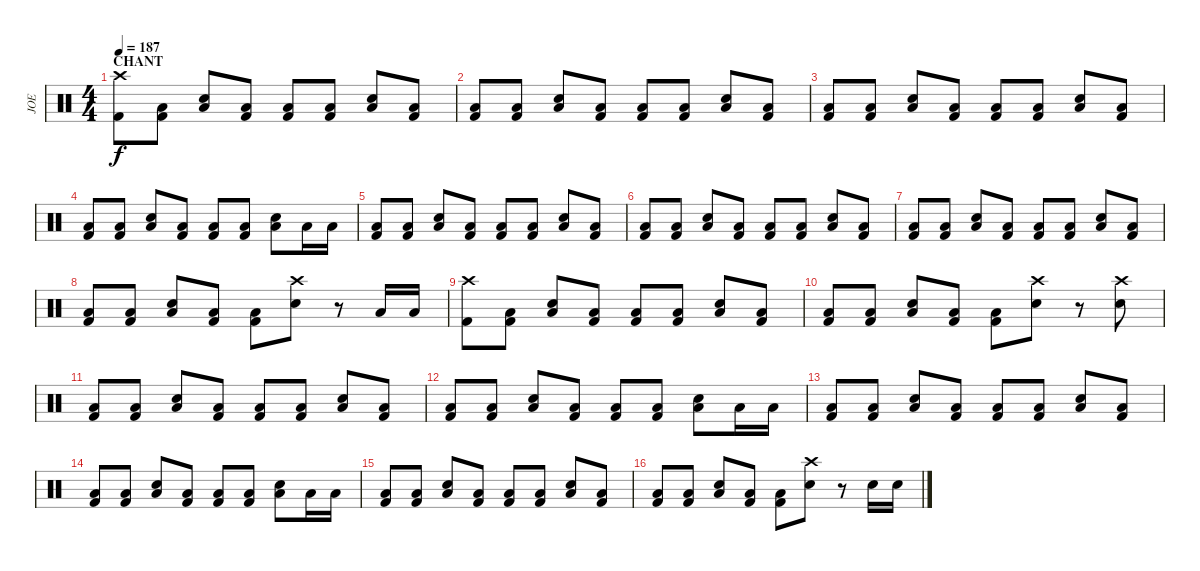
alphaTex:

\track ("JOE" "JOE") {instrument percussion}
\staff {score}
\articulation defaults
\ts (4 4)
\section ("" "CHANT")
\tempo 187
\clef neutral
\ks c
("Crash high (hit)" "Kick (hit) 2").8{dy f} ("Low Floor Tom (hit)" "Kick (hit) 2").8 ("Low Floor Tom (hit)" "Snare (hit) 2").8 ("Low Floor Tom (hit)" "Kick (hit) 2").8 ("Low Floor Tom (hit)" "Kick (hit) 2").8 ("Low Floor Tom (hit)" "Kick (hit) 2").8 ("Low Floor Tom (hit)" "Snare (hit) 2").8 ("Low Floor Tom (hit)" "Kick (hit) 2").8 |
("Low Floor Tom (hit)" "Kick (hit) 2").8 ("Low Floor Tom (hit)" "Kick (hit) 2").8 ("Low Floor Tom (hit)" "Snare (hit) 2").8 ("Low Floor Tom (hit)" "Kick (hit) 2").8 ("Low Floor Tom (hit)" "Kick (hit) 2").8 ("Low Floor Tom (hit)" "Kick (hit) 2").8 ("Low Floor Tom (hit)" "Snare (hit) 2").8 ("Low Floor Tom (hit)" "Kick (hit) 2").8 |
("Low Floor Tom (hit)" "Kick (hit) 2").8 ("Low Floor Tom (hit)" "Kick (hit) 2").8 ("Low Floor Tom (hit)" "Snare (hit) 2").8 ("Low Floor Tom (hit)" "Kick (hit) 2").8 ("Low Floor Tom (hit)" "Kick (hit) 2").8 ("Low Floor Tom (hit)" "Kick (hit) 2").8 ("Low Floor Tom (hit)" "Snare (hit) 2").8 ("Low Floor Tom (hit)" "Kick (hit) 2").8 |
("Low Floor Tom (hit)" "Kick (hit) 2").8 ("Low Floor Tom (hit)" "Kick (hit) 2").8 ("Low Floor Tom (hit)" "Snare (hit) 2").8 ("Low Floor Tom (hit)" "Kick (hit) 2").8 ("Low Floor Tom (hit)" "Kick (hit) 2").8 ("Low Floor Tom (hit)" "Kick (hit) 2").8 ("Low Floor Tom (hit)" "Snare (hit) 2").8 "Low Floor Tom (hit)".16 "Low Floor Tom (hit)".16 |
("Low Floor Tom (hit)" "Kick (hit) 2").8 ("Low Floor Tom (hit)" "Kick (hit) 2").8 ("Low Floor Tom (hit)" "Snare (hit) 2").8 ("Low Floor Tom (hit)" "Kick (hit) 2").8 ("Low Floor Tom (hit)" "Kick (hit) 2").8 ("Low Floor Tom (hit)" "Kick (hit) 2").8 ("Low Floor Tom (hit)" "Snare (hit) 2").8 ("Low Floor Tom (hit)" "Kick (hit) 2").8 |
("Low Floor Tom (hit)" "Kick (hit) 2").8 ("Low Floor Tom (hit)" "Kick (hit) 2").8 ("Low Floor Tom (hit)" "Snare (hit) 2").8 ("Low Floor Tom (hit)" "Kick (hit) 2").8 ("Low Floor Tom (hit)" "Kick (hit) 2").8 ("Low Floor Tom (hit)" "Kick (hit) 2").8 ("Low Floor Tom (hit)" "Snare (hit) 2").8 ("Low Floor Tom (hit)" "Kick (hit) 2").8 |
("Low Floor Tom (hit)" "Kick (hit) 2").8 ("Low Floor Tom (hit)" "Kick (hit) 2").8 ("Low Floor Tom (hit)" "Snare (hit) 2").8 ("Low Floor Tom (hit)" "Kick (hit) 2").8 ("Low Floor Tom (hit)" "Kick (hit) 2").8 ("Low Floor Tom (hit)" "Kick (hit) 2").8 ("Low Floor Tom (hit)" "Snare (hit) 2").8 ("Low Floor Tom (hit)" "Kick (hit) 2").8 |
("Low Floor Tom (hit)" "Kick (hit) 2").8 ("Low Floor Tom (hit)" "Kick (hit) 2").8 ("Low Floor Tom (hit)" "Snare (hit) 2").8 ("Low Floor Tom (hit)" "Kick (hit) 2").8 ("Low Floor Tom (hit)" "Kick (hit) 2").8 ("Crash high (hit)" "Snare (hit) 2").8 r.8 "Low Floor Tom (hit)".16 "Low Floor Tom (hit)".16 |
("Crash high (hit)" "Kick (hit) 2").8 ("Low Floor Tom (hit)" "Kick (hit) 2").8 ("Low Floor Tom (hit)" "Snare (hit) 2").8 ("Low Floor Tom (hit)" "Kick (hit) 2").8 ("Low Floor Tom (hit)" "Kick (hit) 2").8 ("Low Floor Tom (hit)" "Kick (hit) 2").8 ("Low Floor Tom (hit)" "Snare (hit) 2").8 ("Low Floor Tom (hit)" "Kick (hit) 2").8 |
("Low Floor Tom (hit)" "Kick (hit) 2").8 ("Low Floor Tom (hit)" "Kick (hit) 2").8 ("Low Floor Tom (hit)" "Snare (hit) 2").8 ("Low Floor Tom (hit)" "Kick (hit) 2").8 ("Low Floor Tom (hit)" "Kick (hit) 2").8 ("Crash high (hit)" "Snare (hit) 2").8 r.8 ("Crash high (hit)" "Snare (hit) 2").8 |
("Low Floor Tom (hit)" "Kick (hit) 2").8 ("Low Floor Tom (hit)" "Kick (hit) 2").8 ("Low Floor Tom (hit)" "Snare (hit) 2").8 ("Low Floor Tom (hit)" "Kick (hit) 2").8 ("Low Floor Tom (hit)" "Kick (hit) 2").8 ("Low Floor Tom (hit)" "Kick (hit) 2").8 ("Low Floor Tom (hit)" "Snare (hit) 2").8 ("Low Floor Tom (hit)" "Kick (hit) 2").8 |
("Low Floor Tom (hit)" "Kick (hit) 2").8 ("Low Floor Tom (hit)" "Kick (hit) 2").8 ("Low Floor Tom (hit)" "Snare (hit) 2").8 ("Low Floor Tom (hit)" "Kick (hit) 2").8 ("Low Floor Tom (hit)" "Kick (hit) 2").8 ("Low Floor Tom (hit)" "Kick (hit) 2").8 ("Low Floor Tom (hit)" "Snare (hit) 2").8 "Low Floor Tom (hit)".16 "Low Floor Tom (hit)".16 |
("Low Floor Tom (hit)" "Kick (hit) 2").8 ("Low Floor Tom (hit)" "Kick (hit) 2").8 ("Low Floor Tom (hit)" "Snare (hit) 2").8 ("Low Floor Tom (hit)" "Kick (hit) 2").8 ("Low Floor Tom (hit)" "Kick (hit) 2").8 ("Low Floor Tom (hit)" "Kick (hit) 2").8 ("Low Floor Tom (hit)" "Snare (hit) 2").8 ("Low Floor Tom (hit)" "Kick (hit) 2").8 |
("Low Floor Tom (hit)" "Kick (hit) 2").8 ("Low Floor Tom (hit)" "Kick (hit) 2").8 ("Low Floor Tom (hit)" "Snare (hit) 2").8 ("Low Floor Tom (hit)" "Kick (hit) 2").8 ("Low Floor Tom (hit)" "Kick (hit) 2").8 ("Low Floor Tom (hit)" "Kick (hit) 2").8 ("Low Floor Tom (hit)" "Snare (hit) 2").8 "Low Floor Tom (hit)".16 "Low Floor Tom (hit)".16 |
("Low Floor Tom (hit)" "Kick (hit) 2").8 ("Low Floor Tom (hit)" "Kick (hit) 2").8 ("Low Floor Tom (hit)" "Snare (hit) 2").8 ("Low Floor Tom (hit)" "Kick (hit) 2").8 ("Low Floor Tom (hit)" "Kick (hit) 2").8 ("Low Floor Tom (hit)" "Kick (hit) 2").8 ("Low Floor Tom (hit)" "Snare (hit) 2").8 ("Low Floor Tom (hit)" "Kick (hit) 2").8 |
("Low Floor Tom (hit)" "Kick (hit) 2").8 ("Low Floor Tom (hit)" "Kick (hit) 2").8 ("Low Floor Tom (hit)" "Snare (hit) 2").8 ("Low Floor Tom (hit)" "Kick (hit) 2").8 ("Low Floor Tom (hit)" "Kick (hit) 2").8 ("Crash high (hit)" "Snare (hit) 2").8 r.8 "Snare (hit) 2".16 "Snare (hit) 2".16
